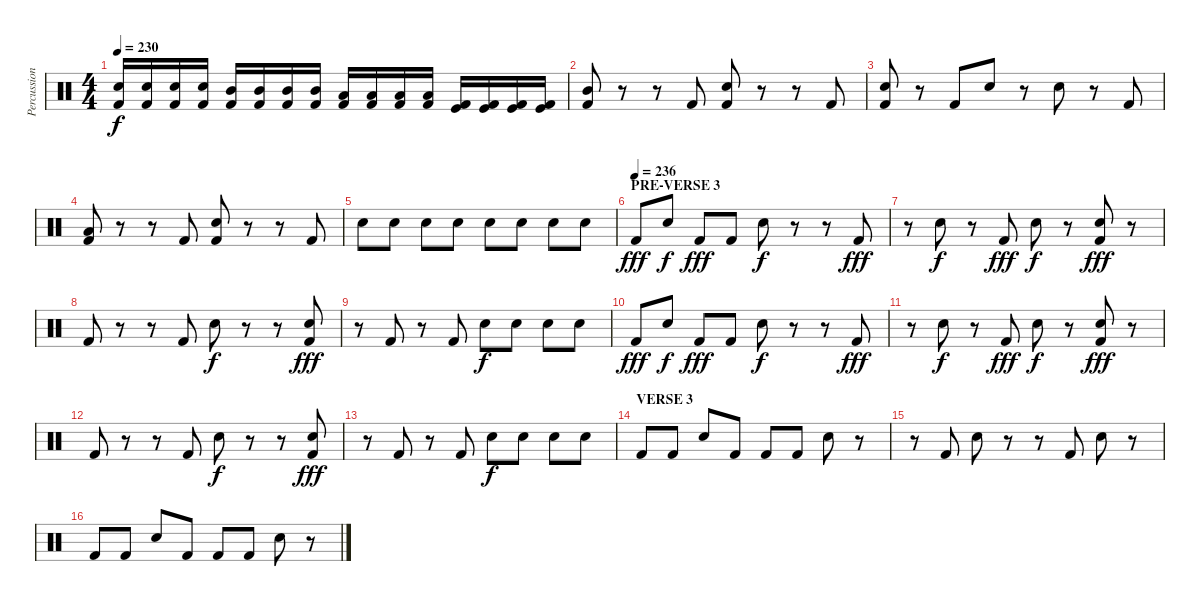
\track ("Percussions" "Percussion") {instrument percussion}
\staff {score}
\articulation defaults
\ts (4 4)
\tempo 230
\clef neutral
\ks c
("Snare (hit) 2" "Kick (hit) 2").16{dy f} ("Snare (hit) 2" "Kick (hit) 2").16 ("Snare (hit) 2" "Kick (hit) 2").16 ("Snare (hit) 2" "Kick (hit) 2").16 ("Mid Tom (hit)" "Kick (hit) 2").16 ("Mid Tom (hit)" "Kick (hit) 2").16 ("Mid Tom (hit)" "Kick (hit) 2").16 ("Mid Tom (hit)" "Kick (hit) 2").16 ("Low Tom (hit)" "Kick (hit) 2").16 ("Low Tom (hit)" "Kick (hit) 2").16 ("Low Tom (hit)" "Kick (hit) 2").16 ("Low Tom (hit)" "Kick (hit) 2").16 ("Kick (hit)" "Kick (hit) 2").16 ("Kick (hit)" "Kick (hit) 2").16 ("Kick (hit)" "Kick (hit) 2").16 ("Kick (hit)" "Kick (hit) 2").16 |
("Mid Tom (hit)" "Kick (hit) 2").8 r.8 r.8 "Kick (hit) 2".8 ("Snare (hit) 2" "Kick (hit) 2").8 r.8 r.8 "Kick (hit) 2".8 |
("Snare (hit) 2" "Kick (hit) 2").8 r.8 "Kick (hit) 2".8 "Snare (hit) 2".8 r.8 "Snare (hit) 2".8 r.8 "Kick (hit) 2".8 |
("Low Tom (hit)" "Kick (hit) 2").8 r.8 r.8 "Kick (hit) 2".8 ("Snare (hit) 2" "Kick (hit) 2").8 r.8 r.8 "Kick (hit) 2".8 |
"Snare (hit) 2".8 "Snare (hit) 2".8 "Snare (hit) 2".8 "Snare (hit) 2".8 "Snare (hit) 2".8 "Snare (hit) 2".8 "Snare (hit) 2".8 "Snare (hit) 2".8 |
\section ("" "PRE-VERSE 3")
\tempo (236)
"Kick (hit) 2".8{dy fff} "Snare (hit) 2".8{dy f} "Kick (hit) 2".8{dy fff} "Kick (hit) 2".8 "Snare (hit) 2".8{dy f} r.8 r.8 "Kick (hit) 2".8{dy fff} |
r.8 "Snare (hit) 2".8{dy f} r.8 "Kick (hit) 2".8{dy fff} "Snare (hit) 2".8{dy f} r.8 ("Snare (hit) 2" "Kick (hit) 2").8{dy fff} r.8 |
"Kick (hit) 2".8 r.8 r.8 "Kick (hit) 2".8 "Snare (hit) 2".8{dy f} r.8 r.8 ("Snare (hit) 2" "Kick (hit) 2").8{dy fff} |
r.8 "Kick (hit) 2".8 r.8 "Kick (hit) 2".8 "Snare (hit) 2".8{dy f} "Snare (hit) 2".8 "Snare (hit) 2".8 "Snare (hit) 2".8 |
"Kick (hit) 2".8{dy fff} "Snare (hit) 2".8{dy f} "Kick (hit) 2".8{dy fff} "Kick (hit) 2".8 "Snare (hit) 2".8{dy f} r.8 r.8 "Kick (hit) 2".8{dy fff} |
r.8 "Snare (hit) 2".8{dy f} r.8 "Kick (hit) 2".8{dy fff} "Snare (hit) 2".8{dy f} r.8 ("Snare (hit) 2" "Kick (hit) 2").8{dy fff} r.8 |
"Kick (hit) 2".8 r.8 r.8 "Kick (hit) 2".8 "Snare (hit) 2".8{dy f} r.8 r.8 ("Snare (hit) 2" "Kick (hit) 2").8{dy fff} |
r.8 "Kick (hit) 2".8 r.8 "Kick (hit) 2".8 "Snare (hit) 2".8{dy f} "Snare (hit) 2".8 "Snare (hit) 2".8 "Snare (hit) 2".8 |
\section ("" "VERSE 3")
"Kick (hit) 2".8 "Kick (hit) 2".8 "Snare (hit) 2".8 "Kick (hit) 2".8 "Kick (hit) 2".8 "Kick (hit) 2".8 "Snare (hit) 2".8 r.8 |
r.8 "Kick (hit) 2".8 "Snare (hit) 2".8 r.8 r.8 "Kick (hit) 2".8 "Snare (hit) 2".8 r.8 |
"Kick (hit) 2".8 "Kick (hit) 2".8 "Snare (hit) 2".8 "Kick (hit) 2".8 "Kick (hit) 2".8 "Kick (hit) 2".8 "Snare (hit) 2".8 r.8
